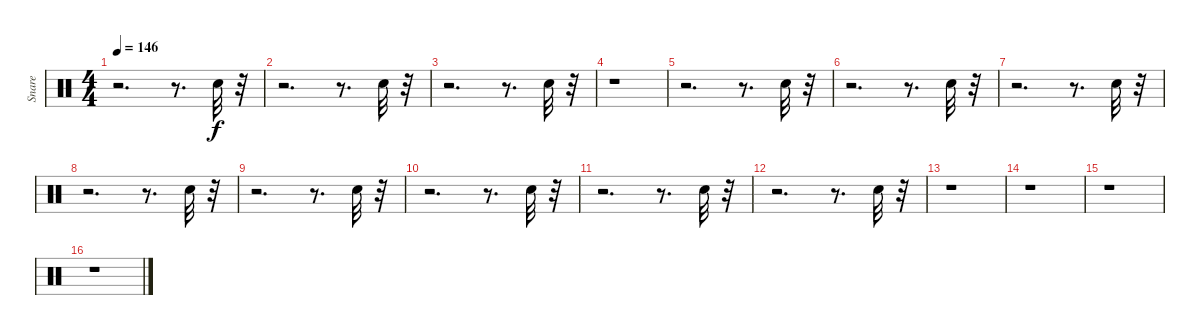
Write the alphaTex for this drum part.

\track ("Snare" "Snare") {instrument percussion}
\staff {score}
\articulation defaults
\ts (4 4)
\tempo 146
\clef neutral
\ks c
r.2{d dy f} r.8{d} "Snare (hit) 2".32 r.32 |
r.2{d} r.8{d} "Snare (hit) 2".32 r.32 |
r.2{d} r.8{d} "Snare (hit) 2".32 r.32 |
r.1 |
r.2{d} r.8{d} "Snare (hit) 2".32 r.32 |
r.2{d} r.8{d} "Snare (hit) 2".32 r.32 |
r.2{d} r.8{d} "Snare (hit) 2".32 r.32 |
r.2{d} r.8{d} "Snare (hit) 2".32 r.32 |
r.2{d} r.8{d} "Snare (hit) 2".32 r.32 |
r.2{d} r.8{d} "Snare (hit) 2".32 r.32 |
r.2{d} r.8{d} "Snare (hit) 2".32 r.32 |
r.2{d} r.8{d} "Snare (hit) 2".32 r.32 |
r.1 |
r.1 |
r.1 |
r.1
